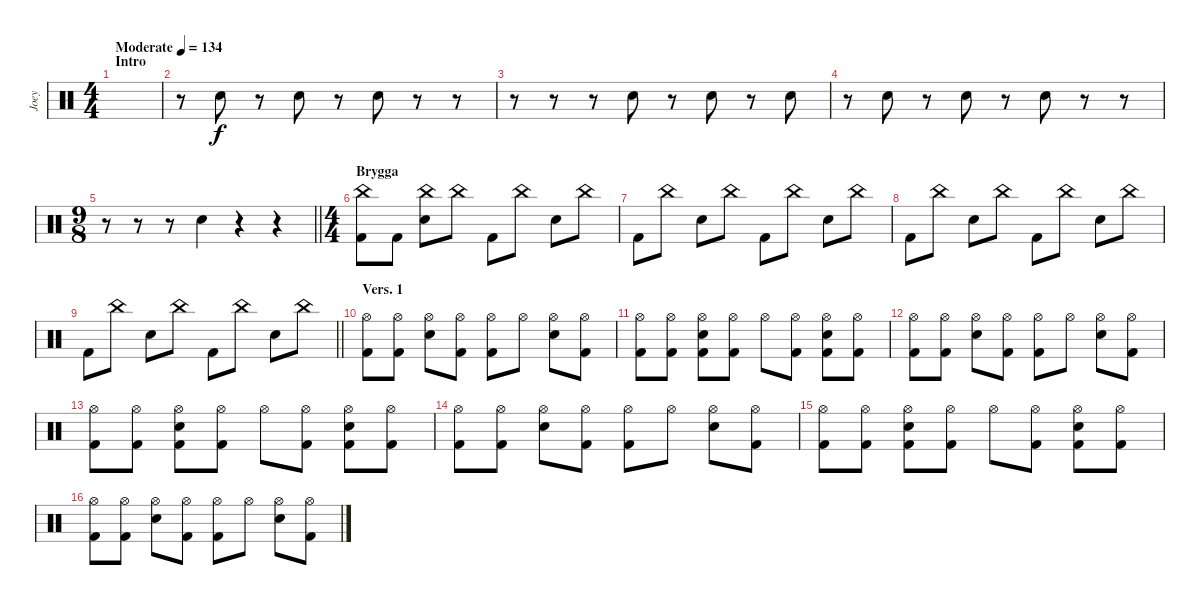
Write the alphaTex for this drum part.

\track ("Joey" "Joey") {instrument percussion}
\staff {score}
\articulation defaults
\ts (4 4)
\section ("" "Intro")
\tempo (134 "Moderate")
\clef neutral
\ks c
|
r.8 "Electric Snare (hit)".8 r.8 "Electric Snare (hit)".8 r.8 "Electric Snare (hit)".8 r.8 r.8 |
r.8 r.8 r.8 "Electric Snare (hit)".8 r.8 "Electric Snare (hit)".8 r.8 "Electric Snare (hit)".8 |
r.8 "Electric Snare (hit)".8 r.8 "Electric Snare (hit)".8 r.8 "Electric Snare (hit)".8 r.8 r.8 |
\ts (9 8)
\barLineRight lightlight
r.8 r.8 r.8 "Electric Snare (hit)".4 r.4 r.4 |
\ts (4 4)
\section ("" "Brygga")
("China (hit)" "Kick (hit) 2").8 "Kick (hit) 2".8 ("China (hit)" "Electric Snare (hit)").8 "China (hit)".8 "Kick (hit) 2".8 "China (hit)".8 "Electric Snare (hit)".8 "China (hit)".8 |
"Kick (hit) 2".8 "China (hit)".8 "Electric Snare (hit)".8 "China (hit)".8 "Kick (hit) 2".8 "China (hit)".8 "Electric Snare (hit)".8 "China (hit)".8 |
"Kick (hit) 2".8 "China (hit)".8 "Electric Snare (hit)".8 "China (hit)".8 "Kick (hit) 2".8 "China (hit)".8 "Electric Snare (hit)".8 "China (hit)".8 |
\barLineRight lightlight "Kick (hit) 2".8 "China (hit)".8 "Electric Snare (hit)".8 "China (hit)".8 "Kick (hit) 2".8 "China (hit)".8 "Electric Snare (hit)".8 "China (hit)".8
|
\section ("" "Vers. 1")
("Hi-Hat (open)" "Kick (hit) 2").8 ("Hi-Hat (open)" "Kick (hit) 2").8 ("Hi-Hat (open)" "Electric Snare (hit)").8 ("Hi-Hat (open)" "Kick (hit) 2").8 ("Hi-Hat (open)" "Kick (hit) 2").8 "Hi-Hat (open)".8 ("Hi-Hat (open)" "Electric Snare (hit)").8 ("Hi-Hat (open)" "Kick (hit) 2").8 |
("Hi-Hat (open)" "Kick (hit) 2").8 ("Hi-Hat (open)" "Kick (hit) 2").8 ("Hi-Hat (open)" "Electric Snare (hit)" "Kick (hit) 2").8 ("Hi-Hat (open)" "Kick (hit) 2").8 "Hi-Hat (open)".8 ("Hi-Hat (open)" "Kick (hit) 2").8 ("Hi-Hat (open)" "Electric Snare (hit)" "Kick (hit) 2").8 ("Hi-Hat (open)" "Kick (hit) 2").8 |
("Hi-Hat (open)" "Kick (hit) 2").8 ("Hi-Hat (open)" "Kick (hit) 2").8 ("Hi-Hat (open)" "Electric Snare (hit)").8 ("Hi-Hat (open)" "Kick (hit) 2").8 ("Hi-Hat (open)" "Kick (hit) 2").8 "Hi-Hat (open)".8 ("Hi-Hat (open)" "Electric Snare (hit)").8 ("Hi-Hat (open)" "Kick (hit) 2").8 |
("Hi-Hat (open)" "Kick (hit) 2").8 ("Hi-Hat (open)" "Kick (hit) 2").8 ("Hi-Hat (open)" "Electric Snare (hit)" "Kick (hit) 2").8 ("Hi-Hat (open)" "Kick (hit) 2").8 "Hi-Hat (open)".8 ("Hi-Hat (open)" "Kick (hit) 2").8 ("Hi-Hat (open)" "Electric Snare (hit)" "Kick (hit) 2").8 ("Hi-Hat (open)" "Kick (hit) 2").8 |
("Hi-Hat (open)" "Kick (hit) 2").8 ("Hi-Hat (open)" "Kick (hit) 2").8 ("Hi-Hat (open)" "Electric Snare (hit)").8 ("Hi-Hat (open)" "Kick (hit) 2").8 ("Hi-Hat (open)" "Kick (hit) 2").8 "Hi-Hat (open)".8 ("Hi-Hat (open)" "Electric Snare (hit)").8 ("Hi-Hat (open)" "Kick (hit) 2").8 |
("Hi-Hat (open)" "Kick (hit) 2").8 ("Hi-Hat (open)" "Kick (hit) 2").8 ("Hi-Hat (open)" "Electric Snare (hit)" "Kick (hit) 2").8 ("Hi-Hat (open)" "Kick (hit) 2").8 "Hi-Hat (open)".8 ("Hi-Hat (open)" "Kick (hit) 2").8 ("Hi-Hat (open)" "Electric Snare (hit)" "Kick (hit) 2").8 ("Hi-Hat (open)" "Kick (hit) 2").8 |
("Hi-Hat (open)" "Kick (hit) 2").8 ("Hi-Hat (open)" "Kick (hit) 2").8 ("Hi-Hat (open)" "Electric Snare (hit)").8 ("Hi-Hat (open)" "Kick (hit) 2").8 ("Hi-Hat (open)" "Kick (hit) 2").8 "Hi-Hat (open)".8 ("Hi-Hat (open)" "Electric Snare (hit)").8 ("Hi-Hat (open)" "Kick (hit) 2").8
